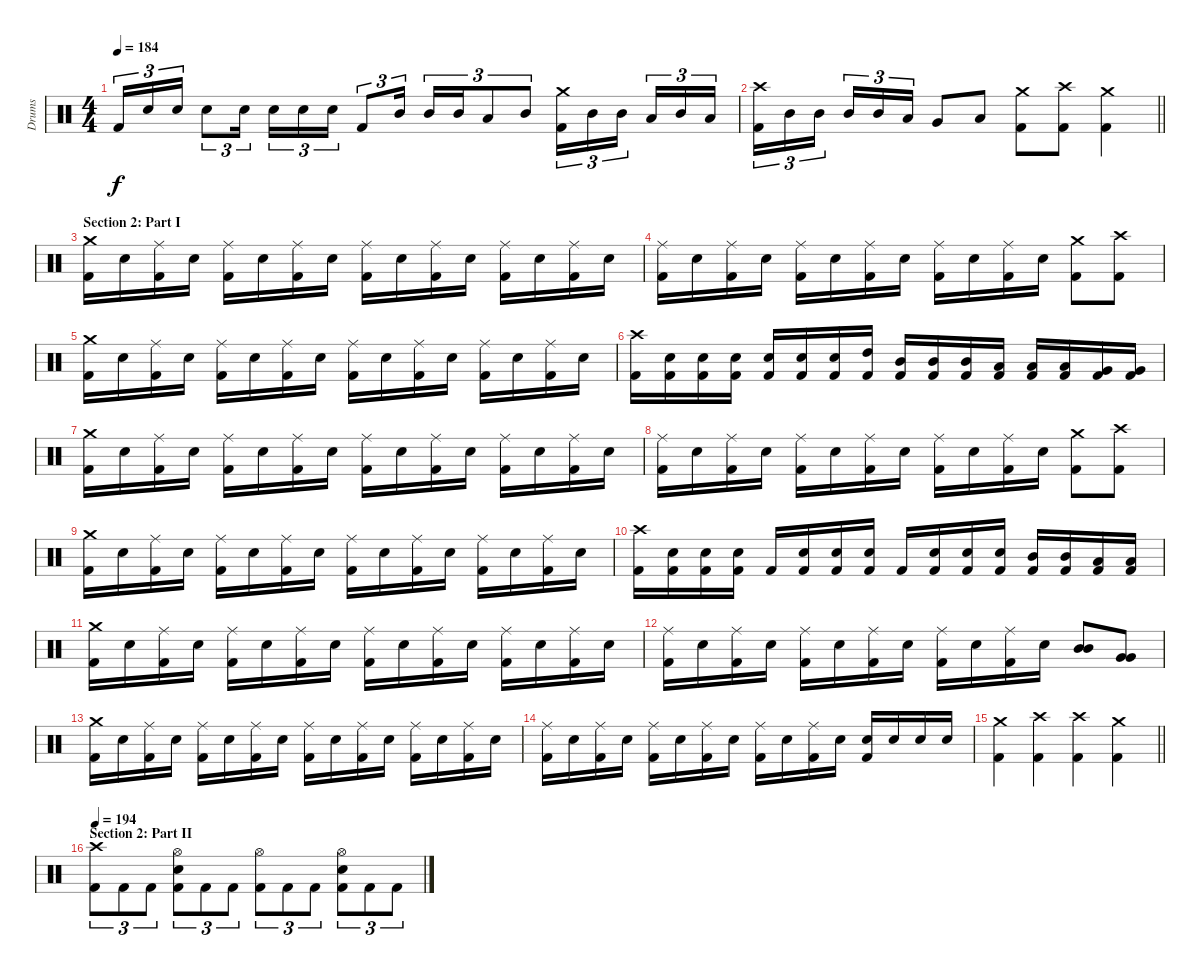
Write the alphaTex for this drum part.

\track ("Drums" "Drums") {instrument percussion}
\staff {score}
\articulation defaults
\ts (4 4)
\tempo 184
\clef neutral
\ks c "Kick (hit) 2".16{tu (3 2) dy f} "Electric Snare (hit)".16{tu (3 2)} "Electric Snare (hit)".16{tu (3 2)} "Electric Snare (hit)".8{tu (3 2)} "Electric Snare (hit)".16{tu (3 2)} "Electric Snare (hit)".16{tu (3 2)} "Electric Snare (hit)".16{tu (3 2)} "Electric Snare (hit)".16{tu (3 2)} "Kick (hit) 2".8{tu (3 2)} "Mid Tom (hit)".16{tu (3 2)} "Mid Tom (hit)".16{tu (3 2)} "Mid Tom (hit)".16{tu (3 2)} "Low Tom (hit)".8{tu (3 2)} "Mid Tom (hit)".8{tu (3 2)}
("Crash medium (hit)" "Kick (hit) 2").16{tu (3 2)} "Mid Tom (hit)".16{tu (3 2)} "Mid Tom (hit)".16{tu (3 2) beam splitsecondary} "Low Tom (hit)".16{tu (3 2)} "Mid Tom (hit)".16{tu (3 2)} "Low Tom (hit)".16{tu (3 2)} |
\barLineRight lightlight
("Crash high (hit)" "Kick (hit) 2").16{tu (3 2)} "Mid Tom (hit)".16{tu (3 2)} "Mid Tom (hit)".16{tu (3 2) beam splitsecondary} "Mid Tom (hit)".16{tu (3 2)} "Mid Tom (hit)".16{tu (3 2)} "Low Tom (hit)".16{tu (3 2)} "Very Low Tom (hit)".8 "Low Floor Tom (hit)".8 ("Crash medium (hit)" "Kick (hit) 2").8 ("Crash high (hit)" "Kick (hit) 2").8 ("Crash medium (hit)" "Kick (hit) 2").4 |
\section ("" "Section 2: Part I")
("Crash medium (hit)" "Kick (hit) 2").16 "Electric Snare (hit)".16 ("Ride (middle)" "Kick (hit) 2").16 "Electric Snare (hit)".16 ("Ride (middle)" "Kick (hit) 2").16 "Electric Snare (hit)".16 ("Ride (middle)" "Kick (hit) 2").16 "Electric Snare (hit)".16 ("Ride (middle)" "Kick (hit) 2").16 "Electric Snare (hit)".16 ("Ride (middle)" "Kick (hit) 2").16 "Electric Snare (hit)".16 ("Ride (middle)" "Kick (hit) 2").16 "Electric Snare (hit)".16 ("Ride (middle)" "Kick (hit) 2").16 "Electric Snare (hit)".16 |
("Ride (middle)" "Kick (hit) 2").16 "Electric Snare (hit)".16 ("Ride (middle)" "Kick (hit) 2").16 "Electric Snare (hit)".16 ("Ride (middle)" "Kick (hit) 2").16 "Electric Snare (hit)".16 ("Ride (middle)" "Kick (hit) 2").16 "Electric Snare (hit)".16 ("Ride (middle)" "Kick (hit) 2").16 "Electric Snare (hit)".16 ("Ride (middle)" "Kick (hit) 2").16 "Electric Snare (hit)".16 ("Crash medium (hit)" "Kick (hit) 2").8 ("Crash high (hit)" "Kick (hit) 2").8 |
("Crash medium (hit)" "Kick (hit) 2").16 "Electric Snare (hit)".16 ("Ride (middle)" "Kick (hit) 2").16 "Electric Snare (hit)".16 ("Ride (middle)" "Kick (hit) 2").16 "Electric Snare (hit)".16 ("Ride (middle)" "Kick (hit) 2").16 "Electric Snare (hit)".16 ("Ride (middle)" "Kick (hit) 2").16 "Electric Snare (hit)".16 ("Ride (middle)" "Kick (hit) 2").16 "Electric Snare (hit)".16 ("Ride (middle)" "Kick (hit) 2").16 "Electric Snare (hit)".16 ("Ride (middle)" "Kick (hit) 2").16 "Electric Snare (hit)".16 |
("Crash high (hit)" "Kick (hit) 2").16 ("Electric Snare (hit)" "Kick (hit) 2").16 ("Electric Snare (hit)" "Kick (hit) 2").16 ("Electric Snare (hit)" "Kick (hit) 2").16 ("Electric Snare (hit)" "Kick (hit) 2").16 ("Electric Snare (hit)" "Kick (hit) 2").16 ("Electric Snare (hit)" "Kick (hit) 2").16 ("High Tom (hit)" "Kick (hit) 2").16 ("Mid Tom (hit)" "Kick (hit) 2").16 ("Mid Tom (hit)" "Kick (hit) 2").16 ("Mid Tom (hit)" "Kick (hit) 2").16 ("Low Tom (hit)" "Kick (hit) 2").16 ("Low Tom (hit)" "Kick (hit) 2").16 ("Low Tom (hit)" "Kick (hit) 2").16 ("Very Low Tom (hit)" "Kick (hit) 2").16 ("Very Low Tom (hit)" "Kick (hit) 2").16 |
("Crash medium (hit)" "Kick (hit) 2").16 "Electric Snare (hit)".16 ("Ride (middle)" "Kick (hit) 2").16 "Electric Snare (hit)".16 ("Ride (middle)" "Kick (hit) 2").16 "Electric Snare (hit)".16 ("Ride (middle)" "Kick (hit) 2").16 "Electric Snare (hit)".16 ("Ride (middle)" "Kick (hit) 2").16 "Electric Snare (hit)".16 ("Ride (middle)" "Kick (hit) 2").16 "Electric Snare (hit)".16 ("Ride (middle)" "Kick (hit) 2").16 "Electric Snare (hit)".16 ("Ride (middle)" "Kick (hit) 2").16 "Electric Snare (hit)".16 |
("Ride (middle)" "Kick (hit) 2").16 "Electric Snare (hit)".16 ("Ride (middle)" "Kick (hit) 2").16 "Electric Snare (hit)".16 ("Ride (middle)" "Kick (hit) 2").16 "Electric Snare (hit)".16 ("Ride (middle)" "Kick (hit) 2").16 "Electric Snare (hit)".16 ("Ride (middle)" "Kick (hit) 2").16 "Electric Snare (hit)".16 ("Ride (middle)" "Kick (hit) 2").16 "Electric Snare (hit)".16 ("Crash medium (hit)" "Kick (hit) 2").8 ("Crash high (hit)" "Kick (hit) 2").8 |
("Crash medium (hit)" "Kick (hit) 2").16 "Electric Snare (hit)".16 ("Ride (middle)" "Kick (hit) 2").16 "Electric Snare (hit)".16 ("Ride (middle)" "Kick (hit) 2").16 "Electric Snare (hit)".16 ("Ride (middle)" "Kick (hit) 2").16 "Electric Snare (hit)".16 ("Ride (middle)" "Kick (hit) 2").16 "Electric Snare (hit)".16 ("Ride (middle)" "Kick (hit) 2").16 "Electric Snare (hit)".16 ("Ride (middle)" "Kick (hit) 2").16 "Electric Snare (hit)".16 ("Ride (middle)" "Kick (hit) 2").16 "Electric Snare (hit)".16 |
("Crash high (hit)" "Kick (hit) 2").16 ("Electric Snare (hit)" "Kick (hit) 2").16 ("Electric Snare (hit)" "Kick (hit) 2").16 ("Electric Snare (hit)" "Kick (hit) 2").16 "Kick (hit) 2".16 ("Electric Snare (hit)" "Kick (hit) 2").16 ("Electric Snare (hit)" "Kick (hit) 2").16 ("Electric Snare (hit)" "Kick (hit) 2").16 "Kick (hit) 2".16 ("Electric Snare (hit)" "Kick (hit) 2").16 ("Electric Snare (hit)" "Kick (hit) 2").16 ("Electric Snare (hit)" "Kick (hit) 2").16 ("Mid Tom (hit)" "Kick (hit) 2").16 ("Mid Tom (hit)" "Kick (hit) 2").16 ("Low Tom (hit)" "Kick (hit) 2").16 ("Low Tom (hit)" "Kick (hit) 2").16 |
("Crash medium (hit)" "Kick (hit) 2").16 "Electric Snare (hit)".16 ("Ride (middle)" "Kick (hit) 2").16 "Electric Snare (hit)".16 ("Ride (middle)" "Kick (hit) 2").16 "Electric Snare (hit)".16 ("Ride (middle)" "Kick (hit) 2").16 "Electric Snare (hit)".16 ("Ride (middle)" "Kick (hit) 2").16 "Electric Snare (hit)".16 ("Ride (middle)" "Kick (hit) 2").16 "Electric Snare (hit)".16 ("Ride (middle)" "Kick (hit) 2").16 "Electric Snare (hit)".16 ("Ride (middle)" "Kick (hit) 2").16 "Electric Snare (hit)".16 |
("Ride (middle)" "Kick (hit) 2").16 "Electric Snare (hit)".16 ("Ride (middle)" "Kick (hit) 2").16 "Electric Snare (hit)".16 ("Ride (middle)" "Kick (hit) 2").16 "Electric Snare (hit)".16 ("Ride (middle)" "Kick (hit) 2").16 "Electric Snare (hit)".16 ("Ride (middle)" "Kick (hit) 2").16 "Electric Snare (hit)".16 ("Ride (middle)" "Kick (hit) 2").16 "Electric Snare (hit)".16 ("Mid Tom (hit)" "Mid Tom (hit)").8 ("Very Low Tom (hit)" "Very Low Tom (hit)").8 |
("Crash medium (hit)" "Kick (hit) 2").16 "Electric Snare (hit)".16 ("Ride (middle)" "Kick (hit) 2").16 "Electric Snare (hit)".16 ("Ride (middle)" "Kick (hit) 2").16 "Electric Snare (hit)".16 ("Ride (middle)" "Kick (hit) 2").16 "Electric Snare (hit)".16 ("Ride (middle)" "Kick (hit) 2").16 "Electric Snare (hit)".16 ("Ride (middle)" "Kick (hit) 2").16 "Electric Snare (hit)".16 ("Ride (middle)" "Kick (hit) 2").16 "Electric Snare (hit)".16 ("Ride (middle)" "Kick (hit) 2").16 "Electric Snare (hit)".16 |
("Ride (middle)" "Kick (hit) 2").16 "Electric Snare (hit)".16 ("Ride (middle)" "Kick (hit) 2").16 "Electric Snare (hit)".16 ("Ride (middle)" "Kick (hit) 2").16 "Electric Snare (hit)".16 ("Ride (middle)" "Kick (hit) 2").16 "Electric Snare (hit)".16 ("Ride (middle)" "Kick (hit) 2").16 "Electric Snare (hit)".16 ("Ride (middle)" "Kick (hit) 2").16 "Electric Snare (hit)".16 ("Electric Snare (hit)" "Kick (hit) 2").16 "Electric Snare (hit)".16 "Electric Snare (hit)".16 "Electric Snare (hit)".16 |
\barLineRight lightlight
("Crash medium (hit)" "Kick (hit) 2").4 ("Crash high (hit)" "Kick (hit) 2").4 ("Crash high (hit)" "Kick (hit) 2").4 ("Crash medium (hit)" "Kick (hit) 2").4 |
\section ("" "Section 2: Part II")
\tempo 194
("Crash high (hit)" "Kick (hit) 2").8{tu (3 2)} "Kick (hit) 2".8{tu (3 2)} "Kick (hit) 2".8{tu (3 2)} ("Hi-Hat (open)" "Electric Snare (hit)" "Kick (hit) 2").8{tu (3 2)} "Kick (hit) 2".8{tu (3 2)} "Kick (hit) 2".8{tu (3 2)} ("Hi-Hat (open)" "Kick (hit) 2").8{tu (3 2)} "Kick (hit) 2".8{tu (3 2)} "Kick (hit) 2".8{tu (3 2)} ("Hi-Hat (open)" "Electric Snare (hit)" "Kick (hit) 2").8{tu (3 2)} "Kick (hit) 2".8{tu (3 2)} "Kick (hit) 2".8{tu (3 2)}
